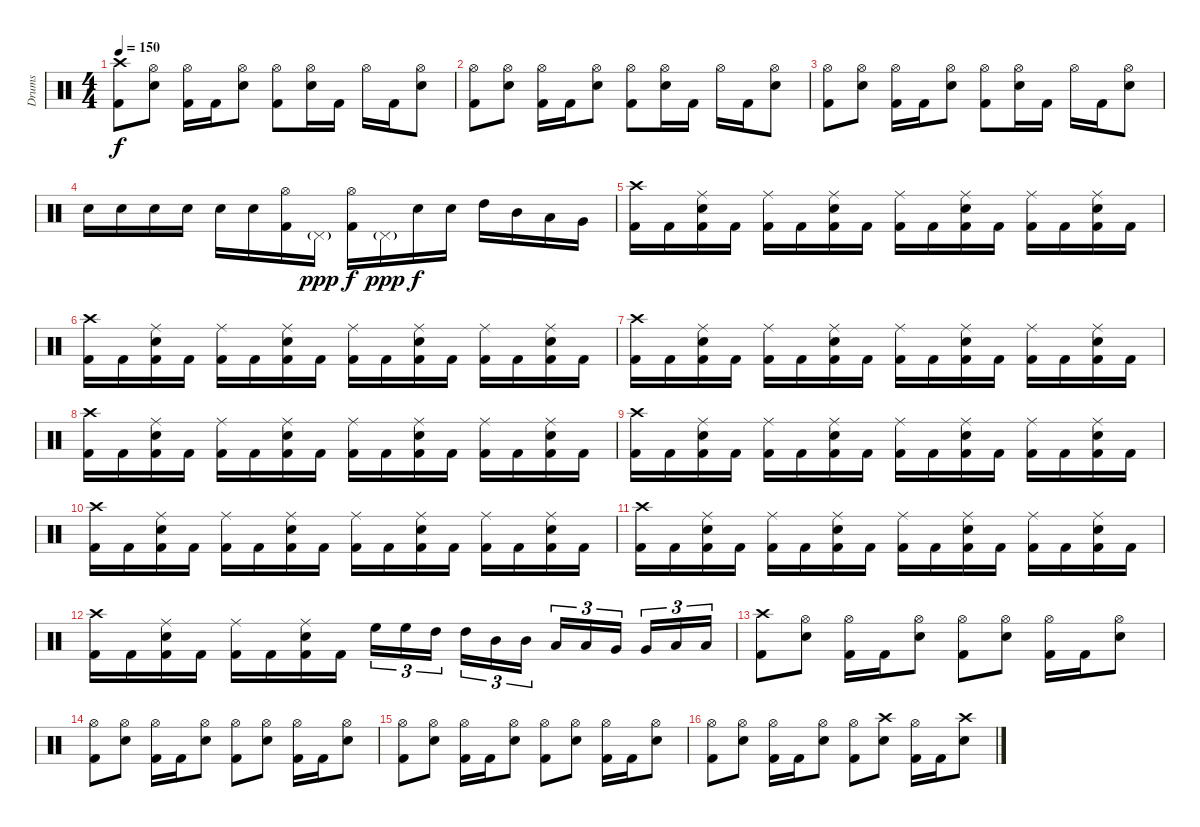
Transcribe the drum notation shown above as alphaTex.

\track ("Drums" "Drums") {instrument percussion}
\staff {score}
\articulation defaults
\ts (4 4)
\tempo 150
\clef neutral
\ks c
("Crash high (hit)" "Kick (hit) 2").8{dy f} ("Hi-Hat (open)" "Electric Snare (hit)").8 ("Hi-Hat (open)" "Kick (hit) 2").16 "Kick (hit) 2".16 ("Hi-Hat (open)" "Electric Snare (hit)").8 ("Hi-Hat (open)" "Kick (hit) 2").8 ("Hi-Hat (open)" "Electric Snare (hit)").16 "Kick (hit) 2".16 "Hi-Hat (open)".16 "Kick (hit) 2".16 ("Hi-Hat (open)" "Electric Snare (hit)").8 |
("Hi-Hat (open)" "Kick (hit) 2").8 ("Hi-Hat (open)" "Electric Snare (hit)").8 ("Hi-Hat (open)" "Kick (hit) 2").16 "Kick (hit) 2".16 ("Hi-Hat (open)" "Electric Snare (hit)").8 ("Hi-Hat (open)" "Kick (hit) 2").8 ("Hi-Hat (open)" "Electric Snare (hit)").16 "Kick (hit) 2".16 "Hi-Hat (open)".16 "Kick (hit) 2".16 ("Hi-Hat (open)" "Electric Snare (hit)").8 |
("Hi-Hat (open)" "Kick (hit) 2").8 ("Hi-Hat (open)" "Electric Snare (hit)").8 ("Hi-Hat (open)" "Kick (hit) 2").16 "Kick (hit) 2".16 ("Hi-Hat (open)" "Electric Snare (hit)").8 ("Hi-Hat (open)" "Kick (hit) 2").8 ("Hi-Hat (open)" "Electric Snare (hit)").16 "Kick (hit) 2".16 "Hi-Hat (open)".16 "Kick (hit) 2".16 ("Hi-Hat (open)" "Electric Snare (hit)").8 |
"Electric Snare (hit)".16 "Electric Snare (hit)".16 "Electric Snare (hit)".16 "Electric Snare (hit)".16 "Electric Snare (hit)".16 "Electric Snare (hit)".16 ("Hi-Hat (open)" "Kick (hit) 2").16 "Pedal Hi-Hat (hit)"{g}.16{dy ppp} ("Hi-Hat (open)" "Kick (hit) 2").16{dy f} "Pedal Hi-Hat (hit)"{g}.16{dy ppp} "Electric Snare (hit)".16{dy f} "Electric Snare (hit)".16 "High Tom (hit)".16 "Mid Tom (hit)".16 "Low Tom (hit)".16 "Very Low Tom (hit)".16 |
("Crash high (hit)" "Kick (hit) 2").16 "Kick (hit) 2".16 ("Ride (middle)" "Electric Snare (hit)" "Kick (hit) 2").16 "Kick (hit) 2".16 ("Ride (middle)" "Kick (hit) 2").16 "Kick (hit) 2".16 ("Ride (middle)" "Electric Snare (hit)" "Kick (hit) 2").16 "Kick (hit) 2".16 ("Ride (middle)" "Kick (hit) 2").16 "Kick (hit) 2".16 ("Ride (middle)" "Electric Snare (hit)" "Kick (hit) 2").16 "Kick (hit) 2".16 ("Ride (middle)" "Kick (hit) 2").16 "Kick (hit) 2".16 ("Ride (middle)" "Electric Snare (hit)" "Kick (hit) 2").16 "Kick (hit) 2".16 |
("Crash high (hit)" "Kick (hit) 2").16 "Kick (hit) 2".16 ("Ride (middle)" "Electric Snare (hit)" "Kick (hit) 2").16 "Kick (hit) 2".16 ("Ride (middle)" "Kick (hit) 2").16 "Kick (hit) 2".16 ("Ride (middle)" "Electric Snare (hit)" "Kick (hit) 2").16 "Kick (hit) 2".16 ("Ride (middle)" "Kick (hit) 2").16 "Kick (hit) 2".16 ("Ride (middle)" "Electric Snare (hit)" "Kick (hit) 2").16 "Kick (hit) 2".16 ("Ride (middle)" "Kick (hit) 2").16 "Kick (hit) 2".16 ("Ride (middle)" "Electric Snare (hit)" "Kick (hit) 2").16 "Kick (hit) 2".16 |
("Crash high (hit)" "Kick (hit) 2").16 "Kick (hit) 2".16 ("Ride (middle)" "Electric Snare (hit)" "Kick (hit) 2").16 "Kick (hit) 2".16 ("Ride (middle)" "Kick (hit) 2").16 "Kick (hit) 2".16 ("Ride (middle)" "Electric Snare (hit)" "Kick (hit) 2").16 "Kick (hit) 2".16 ("Ride (middle)" "Kick (hit) 2").16 "Kick (hit) 2".16 ("Ride (middle)" "Electric Snare (hit)" "Kick (hit) 2").16 "Kick (hit) 2".16 ("Ride (middle)" "Kick (hit) 2").16 "Kick (hit) 2".16 ("Ride (middle)" "Electric Snare (hit)" "Kick (hit) 2").16 "Kick (hit) 2".16 |
("Crash high (hit)" "Kick (hit) 2").16 "Kick (hit) 2".16 ("Ride (middle)" "Electric Snare (hit)" "Kick (hit) 2").16 "Kick (hit) 2".16 ("Ride (middle)" "Kick (hit) 2").16 "Kick (hit) 2".16 ("Ride (middle)" "Electric Snare (hit)" "Kick (hit) 2").16 "Kick (hit) 2".16 ("Ride (middle)" "Kick (hit) 2").16 "Kick (hit) 2".16 ("Ride (middle)" "Electric Snare (hit)" "Kick (hit) 2").16 "Kick (hit) 2".16 ("Ride (middle)" "Kick (hit) 2").16 "Kick (hit) 2".16 ("Ride (middle)" "Electric Snare (hit)" "Kick (hit) 2").16 "Kick (hit) 2".16 |
("Crash high (hit)" "Kick (hit) 2").16 "Kick (hit) 2".16 ("Ride (middle)" "Electric Snare (hit)" "Kick (hit) 2").16 "Kick (hit) 2".16 ("Ride (middle)" "Kick (hit) 2").16 "Kick (hit) 2".16 ("Ride (middle)" "Electric Snare (hit)" "Kick (hit) 2").16 "Kick (hit) 2".16 ("Ride (middle)" "Kick (hit) 2").16 "Kick (hit) 2".16 ("Ride (middle)" "Electric Snare (hit)" "Kick (hit) 2").16 "Kick (hit) 2".16 ("Ride (middle)" "Kick (hit) 2").16 "Kick (hit) 2".16 ("Ride (middle)" "Electric Snare (hit)" "Kick (hit) 2").16 "Kick (hit) 2".16 |
("Crash high (hit)" "Kick (hit) 2").16 "Kick (hit) 2".16 ("Ride (middle)" "Electric Snare (hit)" "Kick (hit) 2").16 "Kick (hit) 2".16 ("Ride (middle)" "Kick (hit) 2").16 "Kick (hit) 2".16 ("Ride (middle)" "Electric Snare (hit)" "Kick (hit) 2").16 "Kick (hit) 2".16 ("Ride (middle)" "Kick (hit) 2").16 "Kick (hit) 2".16 ("Ride (middle)" "Electric Snare (hit)" "Kick (hit) 2").16 "Kick (hit) 2".16 ("Ride (middle)" "Kick (hit) 2").16 "Kick (hit) 2".16 ("Ride (middle)" "Electric Snare (hit)" "Kick (hit) 2").16 "Kick (hit) 2".16 |
("Crash high (hit)" "Kick (hit) 2").16 "Kick (hit) 2".16 ("Ride (middle)" "Electric Snare (hit)" "Kick (hit) 2").16 "Kick (hit) 2".16 ("Ride (middle)" "Kick (hit) 2").16 "Kick (hit) 2".16 ("Ride (middle)" "Electric Snare (hit)" "Kick (hit) 2").16 "Kick (hit) 2".16 ("Ride (middle)" "Kick (hit) 2").16 "Kick (hit) 2".16 ("Ride (middle)" "Electric Snare (hit)" "Kick (hit) 2").16 "Kick (hit) 2".16 ("Ride (middle)" "Kick (hit) 2").16 "Kick (hit) 2".16 ("Ride (middle)" "Electric Snare (hit)" "Kick (hit) 2").16 "Kick (hit) 2".16 |
("Crash high (hit)" "Kick (hit) 2").16 "Kick (hit) 2".16 ("Ride (middle)" "Electric Snare (hit)" "Kick (hit) 2").16 "Kick (hit) 2".16 ("Ride (middle)" "Kick (hit) 2").16 "Kick (hit) 2".16 ("Ride (middle)" "Electric Snare (hit)" "Kick (hit) 2").16 "Kick (hit) 2".16 "High Floor Tom (hit)".16{tu (3 2)} "High Floor Tom (hit)".16{tu (3 2)} "High Tom (hit)".16{tu (3 2)} "High Tom (hit)".16{tu (3 2)} "Mid Tom (hit)".16{tu (3 2)} "Mid Tom (hit)".16{tu (3 2)} "Low Tom (hit)".16{tu (3 2)} "Low Tom (hit)".16{tu (3 2)} "Very Low Tom (hit)".16{tu (3 2)} "Very Low Tom (hit)".16{tu (3 2)} "Low Floor Tom (hit)".16{tu (3 2)} "Low Floor Tom (hit)".16{tu (3 2)} |
("Crash high (hit)" "Kick (hit) 2").8 ("Hi-Hat (open)" "Electric Snare (hit)").8 ("Hi-Hat (open)" "Kick (hit) 2").16 "Kick (hit) 2".16 ("Hi-Hat (open)" "Electric Snare (hit)").8 ("Hi-Hat (open)" "Kick (hit) 2").8 ("Hi-Hat (open)" "Electric Snare (hit)").8 ("Hi-Hat (open)" "Kick (hit) 2").16 "Kick (hit) 2".16 ("Hi-Hat (open)" "Electric Snare (hit)").8 |
("Hi-Hat (open)" "Kick (hit) 2").8 ("Hi-Hat (open)" "Electric Snare (hit)").8 ("Hi-Hat (open)" "Kick (hit) 2").16 "Kick (hit) 2".16 ("Hi-Hat (open)" "Electric Snare (hit)").8 ("Hi-Hat (open)" "Kick (hit) 2").8 ("Hi-Hat (open)" "Electric Snare (hit)").8 ("Hi-Hat (open)" "Kick (hit) 2").16 "Kick (hit) 2".16 ("Hi-Hat (open)" "Electric Snare (hit)").8 |
("Hi-Hat (open)" "Kick (hit) 2").8 ("Hi-Hat (open)" "Electric Snare (hit)").8 ("Hi-Hat (open)" "Kick (hit) 2").16 "Kick (hit) 2".16 ("Hi-Hat (open)" "Electric Snare (hit)").8 ("Hi-Hat (open)" "Kick (hit) 2").8 ("Hi-Hat (open)" "Electric Snare (hit)").8 ("Hi-Hat (open)" "Kick (hit) 2").16 "Kick (hit) 2".16 ("Hi-Hat (open)" "Electric Snare (hit)").8 |
("Hi-Hat (open)" "Kick (hit) 2").8 ("Hi-Hat (open)" "Electric Snare (hit)").8 ("Hi-Hat (open)" "Kick (hit) 2").16 "Kick (hit) 2".16 ("Hi-Hat (open)" "Electric Snare (hit)").8 ("Hi-Hat (open)" "Kick (hit) 2").8 ("Crash high (hit)" "Electric Snare (hit)").8 ("Hi-Hat (open)" "Kick (hit) 2").16 "Kick (hit) 2".16 ("Crash high (hit)" "Electric Snare (hit)").8
